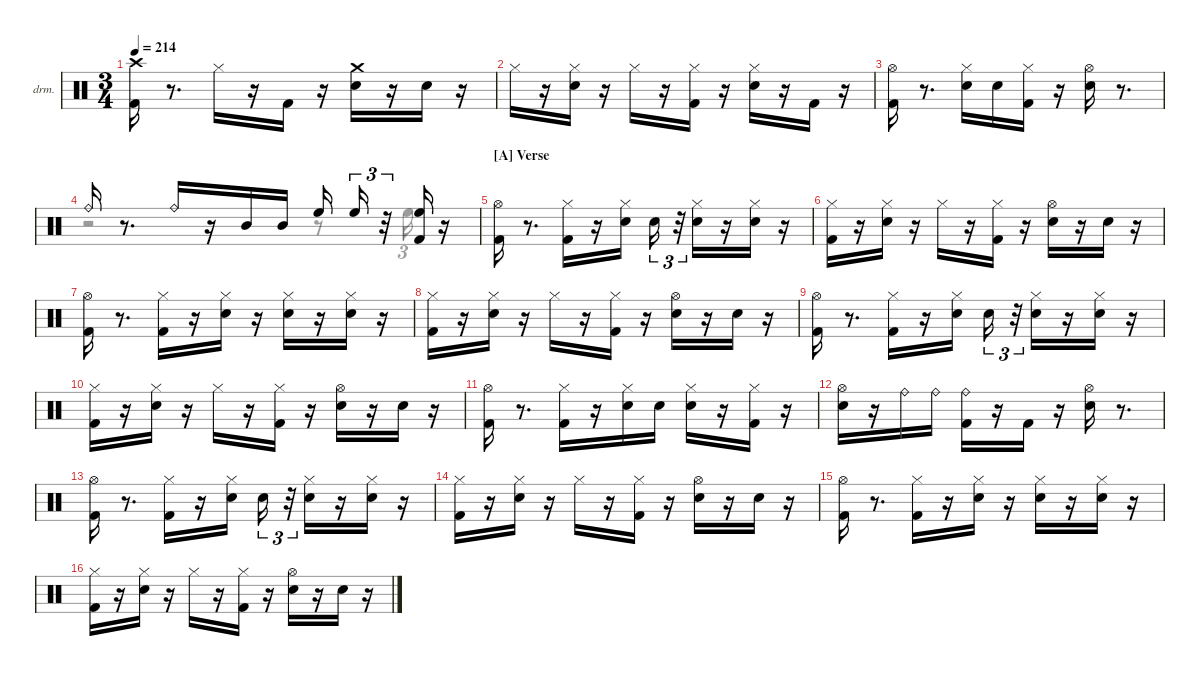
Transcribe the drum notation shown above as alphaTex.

\hideDynamics
\bracketExtendMode nobrackets
\firstSystemTrackNameOrientation horizontal
\otherSystemsTrackNameOrientation horizontal
\track ("EZdrummer 3" "drm.") {instrument percussion}
\staff {score}
\articulation defaults
\voice
\ts (3 4)
\tempo 214
\clef neutral
\ks aminor
("Kick (hit) 2" "Crash high (hit)"{acc #}).16{dy fff} r.8{d} "Hi-Hat (closed)"{acc #}.16{dy f} r.16 "Kick (hit) 2".16 r.16 ("Snare (hit) 2" "Crash medium (hit)").16 r.16 "Snare (hit) 2".16{dy pp} r.16 |
"Hi-Hat (closed)"{acc #}.16{dy ff} r.16 ("Snare (hit) 2" "Hi-Hat (closed)"{acc #}).16{dy f} r.16 "Hi-Hat (closed)"{acc #}.16 r.16 ("Kick (hit) 2" "Hi-Hat (closed)"{acc #}).16 r.16 ("Snare (hit) 2" "Hi-Hat (closed)"{acc #}).16 r.16 "Kick (hit) 2".16{dy pp} r.16 |
("Kick (hit) 2" "Hi-Hat (open)"{acc #}).16{dy ff} r.8{d} ("Snare (hit) 2" "Hi-Hat (closed)"{acc #}).16{dy p} "Snare (hit) 2".16 ("Kick (hit) 2" "Hi-Hat (closed)"{acc #}).16{dy mf} r.16 ("Snare (hit) 2" "Hi-Hat (open)"{acc #}).16{dy fff} r.8{d} |
"Ride (bell)".16{dy ff} r.8{d} "Ride (bell)".16{dy f} r.16 "Mid Tom (hit)".16 "Mid Tom (hit)".16{dy p} "High Floor Tom (hit)".16{dy fff} "High Floor Tom (hit)".16{tu (3 2) dy ppp} r.32{tu (3 2)} ("Kick (hit) 2" "High Floor Tom (hit)").16{dy mf} r.16 |
\section ("A" "Verse")
("Kick (hit) 2" "Hi-Hat (open)"{acc #}).16{dy ff} r.8{d} ("Kick (hit) 2" "Hi-Hat (closed)"{acc #}).16{dy mf} r.16 ("Snare (hit) 2" "Hi-Hat (closed)"{acc #}).16{dy pp} "Snare (hit) 2".16{tu (3 2) dy p} r.32{tu (3 2)} ("Snare (hit) 2" "Hi-Hat (closed)"{acc #}).16{dy ppp} r.16 ("Snare (hit) 2" "Hi-Hat (closed)"{acc #}).16{dy pp} r.16 |
("Kick (hit) 2" "Hi-Hat (closed)"{acc #}).16{dy mf} r.16 ("Snare (hit) 2" "Hi-Hat (closed)"{acc #}).16{dy f} r.16 "Hi-Hat (closed)"{acc #}.16 r.16 ("Kick (hit) 2" "Hi-Hat (closed)"{acc #}).16 r.16 ("Snare (hit) 2" "Hi-Hat (open)"{acc #}).16 r.16 "Snare (hit) 2".16{dy pp} r.16 |
("Kick (hit) 2" "Hi-Hat (open)"{acc #}).16{dy ff} r.8{d} ("Kick (hit) 2" "Hi-Hat (closed)"{acc #}).16{dy f} r.16 ("Snare (hit) 2" "Hi-Hat (closed)"{acc #}).16 r.16 ("Snare (hit) 2" "Hi-Hat (closed)"{acc #}).16{dy ppp} r.16 ("Snare (hit) 2" "Hi-Hat (closed)"{acc #}).16{dy pp} r.16 |
("Kick (hit) 2" "Hi-Hat (closed)"{acc #}).16{dy mf} r.16 ("Snare (hit) 2" "Hi-Hat (closed)"{acc #}).16{dy mp} r.16 "Hi-Hat (closed)"{acc #}.16{dy f} r.16 ("Kick (hit) 2" "Hi-Hat (closed)"{acc #}).16 r.16 ("Snare (hit) 2" "Hi-Hat (open)"{acc #}).16 r.16 "Snare (hit) 2".16{dy pp} r.16 |
("Kick (hit) 2" "Hi-Hat (open)"{acc #}).16{dy ff} r.8{d} ("Kick (hit) 2" "Hi-Hat (closed)"{acc #}).16{dy mf} r.16 ("Snare (hit) 2" "Hi-Hat (closed)"{acc #}).16{dy f} "Snare (hit) 2".16{tu (3 2) dy p} r.32{tu (3 2)} ("Snare (hit) 2" "Hi-Hat (closed)"{acc #}).16{dy ppp} r.16 ("Snare (hit) 2" "Hi-Hat (closed)"{acc #}).16{dy pp} r.16 |
("Kick (hit) 2" "Hi-Hat (closed)"{acc #}).16{dy mf} r.16 ("Snare (hit) 2" "Hi-Hat (closed)"{acc #}).16{dy pp} r.16 "Hi-Hat (closed)"{acc #}.16{dy f} r.16 ("Kick (hit) 2" "Hi-Hat (closed)"{acc #}).16 r.16 ("Snare (hit) 2" "Hi-Hat (open)"{acc #}).16 r.16 "Snare (hit) 2".16{dy pp} r.16 |
("Kick (hit) 2" "Hi-Hat (open)"{acc #}).16{dy ff} r.8{d} ("Kick (hit) 2" "Hi-Hat (closed)"{acc #}).16{dy f} r.16 ("Snare (hit) 2" "Hi-Hat (closed)"{acc #}).16 "Snare (hit) 2".16{dy pp} ("Snare (hit) 2" "Hi-Hat (closed)"{acc #}).16{dy ppp} r.16 ("Kick (hit) 2" "Hi-Hat (closed)"{acc #}).16{dy mf} r.16 |
("Snare (hit) 2" "Hi-Hat (open)"{acc #}).16{dy fff} r.16 "Ride (bell)".16{dy ff} "Ride (bell)".16{dy f} ("Kick (hit) 2" "Ride (bell)").16{dy mp} r.16 "Kick (hit) 2".16{dy ff} r.16 ("Snare (hit) 2" "Hi-Hat (open)"{acc #}).16{dy fff} r.8{d} |
("Kick (hit) 2" "Hi-Hat (open)"{acc #}).16{dy ff} r.8{d} ("Kick (hit) 2" "Hi-Hat (closed)"{acc #}).16{dy mf} r.16 ("Snare (hit) 2" "Hi-Hat (closed)"{acc #}).16{dy f} "Snare (hit) 2".16{tu (3 2) dy p} r.32{tu (3 2)} ("Snare (hit) 2" "Hi-Hat (closed)"{acc #}).16{dy ppp} r.16 ("Snare (hit) 2" "Hi-Hat (closed)"{acc #}).16{dy pp} r.16 |
("Kick (hit) 2" "Hi-Hat (closed)"{acc #}).16{dy mf} r.16 ("Snare (hit) 2" "Hi-Hat (closed)"{acc #}).16{dy f} r.16 "Hi-Hat (closed)"{acc #}.16 r.16 ("Kick (hit) 2" "Hi-Hat (closed)"{acc #}).16 r.16 ("Snare (hit) 2" "Hi-Hat (open)"{acc #}).16 r.16 "Snare (hit) 2".16{dy pp} r.16 |
("Kick (hit) 2" "Hi-Hat (open)"{acc #}).16{dy ff} r.8{d} ("Kick (hit) 2" "Hi-Hat (closed)"{acc #}).16{dy f} r.16 ("Snare (hit) 2" "Hi-Hat (closed)"{acc #}).16 r.16 ("Snare (hit) 2" "Hi-Hat (closed)"{acc #}).16{dy ppp} r.16 ("Snare (hit) 2" "Hi-Hat (closed)"{acc #}).16{dy pp} r.16 |
("Kick (hit) 2" "Hi-Hat (closed)"{acc #}).16{dy mf} r.16 ("Snare (hit) 2" "Hi-Hat (closed)"{acc #}).16{dy mp} r.16 "Hi-Hat (closed)"{acc #}.16{dy f} r.16 ("Kick (hit) 2" "Hi-Hat (closed)"{acc #}).16 r.16 ("Snare (hit) 2" "Hi-Hat (open)"{acc #}).16 r.16 "Snare (hit) 2".16{dy pp} r.16
\voice
\clef neutral
\ottava regular
\simile none
\ks aminor
|
|
|
r.2 r.8 "High Floor Tom (hit)".16{tu (3 2) dy ppp} |
|
|
|
|
|
|
|
|
|
|
|
